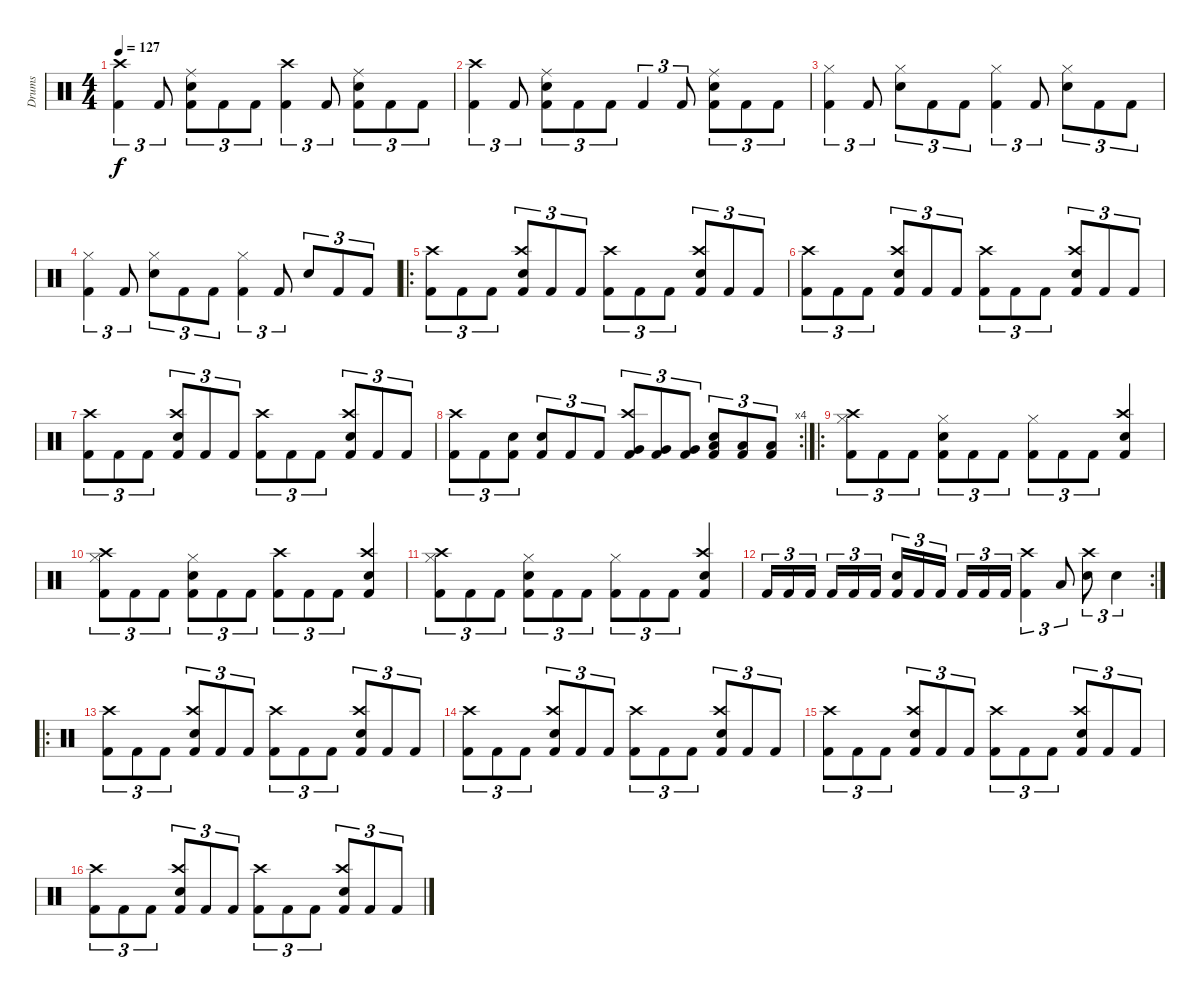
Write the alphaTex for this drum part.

\track ("Drums" "Drums") {instrument percussion}
\staff {score}
\articulation defaults
\ts (4 4)
\tempo 127
\clef neutral
\ks c
("Kick (hit) 2" "Crash high (hit)").4{tu (3 2) dy f} "Kick (hit) 2".8{tu (3 2)} ("Kick (hit) 2" "Electric Snare (hit)" "Ride (middle)").8{tu (3 2)} "Kick (hit) 2".8{tu (3 2)} "Kick (hit) 2".8{tu (3 2)} ("Kick (hit) 2" "Crash high (hit)").4{tu (3 2)} "Kick (hit) 2".8{tu (3 2)} ("Kick (hit) 2" "Electric Snare (hit)" "Ride (middle)").8{tu (3 2)} "Kick (hit) 2".8{tu (3 2)} "Kick (hit) 2".8{tu (3 2)} |
("Kick (hit) 2" "Crash high (hit)").4{tu (3 2)} "Kick (hit) 2".8{tu (3 2)} ("Kick (hit) 2" "Electric Snare (hit)" "Ride (middle)").8{tu (3 2)} "Kick (hit) 2".8{tu (3 2)} "Kick (hit) 2".8{tu (3 2)} "Kick (hit) 2".4{tu (3 2)} "Kick (hit) 2".8{tu (3 2)} ("Kick (hit) 2" "Electric Snare (hit)" "Ride (middle)").8{tu (3 2)} "Kick (hit) 2".8{tu (3 2)} "Kick (hit) 2".8{tu (3 2)} |
("Kick (hit) 2" "Hi-Hat (closed)").4{tu (3 2)} "Kick (hit) 2".8{tu (3 2)} ("Electric Snare (hit)" "Hi-Hat (closed)").8{tu (3 2)} "Kick (hit) 2".8{tu (3 2)} "Kick (hit) 2".8{tu (3 2)} ("Kick (hit) 2" "Hi-Hat (closed)").4{tu (3 2)} "Kick (hit) 2".8{tu (3 2)} ("Electric Snare (hit)" "Hi-Hat (closed)").8{tu (3 2)} "Kick (hit) 2".8{tu (3 2)} "Kick (hit) 2".8{tu (3 2)} |
("Kick (hit) 2" "Hi-Hat (closed)").4{tu (3 2)} "Kick (hit) 2".8{tu (3 2)} ("Electric Snare (hit)" "Hi-Hat (closed)").8{tu (3 2)} "Kick (hit) 2".8{tu (3 2)} "Kick (hit) 2".8{tu (3 2)} ("Kick (hit) 2" "Hi-Hat (closed)").4{tu (3 2)} "Kick (hit) 2".8{tu (3 2)} "Electric Snare (hit)".8{tu (3 2)} "Kick (hit) 2".8{tu (3 2)} "Kick (hit) 2".8{tu (3 2)} |
\ro
("Kick (hit) 2" "Crash high (hit)").8{tu (3 2)} "Kick (hit) 2".8{tu (3 2)} "Kick (hit) 2".8{tu (3 2)} ("Kick (hit) 2" "Electric Snare (hit)" "Crash high (hit)").8{tu (3 2)} "Kick (hit) 2".8{tu (3 2)} "Kick (hit) 2".8{tu (3 2)} ("Kick (hit) 2" "Crash high (hit)").8{tu (3 2)} "Kick (hit) 2".8{tu (3 2)} "Kick (hit) 2".8{tu (3 2)} ("Kick (hit) 2" "Electric Snare (hit)" "Crash high (hit)").8{tu (3 2)} "Kick (hit) 2".8{tu (3 2)} "Kick (hit) 2".8{tu (3 2)} |
("Kick (hit) 2" "Crash high (hit)").8{tu (3 2)} "Kick (hit) 2".8{tu (3 2)} "Kick (hit) 2".8{tu (3 2)} ("Kick (hit) 2" "Electric Snare (hit)" "Crash high (hit)").8{tu (3 2)} "Kick (hit) 2".8{tu (3 2)} "Kick (hit) 2".8{tu (3 2)} ("Kick (hit) 2" "Crash high (hit)").8{tu (3 2)} "Kick (hit) 2".8{tu (3 2)} "Kick (hit) 2".8{tu (3 2)} ("Kick (hit) 2" "Electric Snare (hit)" "Crash high (hit)").8{tu (3 2)} "Kick (hit) 2".8{tu (3 2)} "Kick (hit) 2".8{tu (3 2)} |
("Kick (hit) 2" "Crash high (hit)").8{tu (3 2)} "Kick (hit) 2".8{tu (3 2)} "Kick (hit) 2".8{tu (3 2)} ("Kick (hit) 2" "Electric Snare (hit)" "Crash high (hit)").8{tu (3 2)} "Kick (hit) 2".8{tu (3 2)} "Kick (hit) 2".8{tu (3 2)} ("Kick (hit) 2" "Crash high (hit)").8{tu (3 2)} "Kick (hit) 2".8{tu (3 2)} "Kick (hit) 2".8{tu (3 2)} ("Kick (hit) 2" "Electric Snare (hit)" "Crash high (hit)").8{tu (3 2)} "Kick (hit) 2".8{tu (3 2)} "Kick (hit) 2".8{tu (3 2)} |
\rc 4
("Kick (hit) 2" "Crash high (hit)").8{tu (3 2)} "Kick (hit) 2".8{tu (3 2)} ("Kick (hit) 2" "Electric Snare (hit)").8{tu (3 2)} ("Kick (hit) 2" "Electric Snare (hit)").8{tu (3 2)} "Kick (hit) 2".8{tu (3 2)} "Kick (hit) 2".8{tu (3 2)} ("Kick (hit) 2" "Crash high (hit)" "Very Low Tom (hit)").8{tu (3 2)} ("Kick (hit) 2" "Very Low Tom (hit)").8{tu (3 2)} ("Kick (hit) 2" "Very Low Tom (hit)").8{tu (3 2)} ("Kick (hit) 2" "Electric Snare (hit)" "Low Floor Tom (hit)").8{tu (3 2)} ("Kick (hit) 2" "Low Floor Tom (hit)").8{tu (3 2)} ("Kick (hit) 2" "Low Floor Tom (hit)").8{tu (3 2)} |
\ro
("Kick (hit) 2" "Hi-Hat (closed)" "Crash high (hit)").8{tu (3 2)} "Kick (hit) 2".8{tu (3 2)} "Kick (hit) 2".8{tu (3 2)} ("Kick (hit) 2" "Electric Snare (hit)" "Hi-Hat (closed)").8{tu (3 2)} "Kick (hit) 2".8{tu (3 2)} "Kick (hit) 2".8{tu (3 2)} ("Kick (hit) 2" "Hi-Hat (closed)").8{tu (3 2)} "Kick (hit) 2".8{tu (3 2)} "Kick (hit) 2".8{tu (3 2)} ("Kick (hit) 2" "Electric Snare (hit)" "Crash high (hit)").4 |
("Kick (hit) 2" "Hi-Hat (closed)" "Crash high (hit)").8{tu (3 2)} "Kick (hit) 2".8{tu (3 2)} "Kick (hit) 2".8{tu (3 2)} ("Kick (hit) 2" "Electric Snare (hit)" "Hi-Hat (closed)").8{tu (3 2)} "Kick (hit) 2".8{tu (3 2)} "Kick (hit) 2".8{tu (3 2)} ("Kick (hit) 2" "Crash high (hit)").8{tu (3 2)} "Kick (hit) 2".8{tu (3 2)} "Kick (hit) 2".8{tu (3 2)} ("Kick (hit) 2" "Electric Snare (hit)" "Crash high (hit)").4 |
("Kick (hit) 2" "Hi-Hat (closed)" "Crash high (hit)").8{tu (3 2)} "Kick (hit) 2".8{tu (3 2)} "Kick (hit) 2".8{tu (3 2)} ("Kick (hit) 2" "Electric Snare (hit)" "Hi-Hat (closed)").8{tu (3 2)} "Kick (hit) 2".8{tu (3 2)} "Kick (hit) 2".8{tu (3 2)} ("Kick (hit) 2" "Hi-Hat (closed)").8{tu (3 2)} "Kick (hit) 2".8{tu (3 2)} "Kick (hit) 2".8{tu (3 2)} ("Kick (hit) 2" "Electric Snare (hit)" "Crash high (hit)").4 |
\rc 2 "Kick (hit) 2".16{tu (3 2)} "Kick (hit) 2".16{tu (3 2)} "Kick (hit) 2".16{tu (3 2) beam splitsecondary} "Kick (hit) 2".16{tu (3 2)} "Kick (hit) 2".16{tu (3 2)} "Kick (hit) 2".16{tu (3 2)}
("Kick (hit) 2" "Electric Snare (hit)").16{tu (3 2)} "Kick (hit) 2".16{tu (3 2)} "Kick (hit) 2".16{tu (3 2) beam splitsecondary} "Kick (hit) 2".16{tu (3 2)} "Kick (hit) 2".16{tu (3 2)} "Kick (hit) 2".16{tu (3 2)} ("Kick (hit) 2" "Crash high (hit)").4{tu (3 2)} "Low Tom (hit)".8{tu (3 2)} ("Electric Snare (hit)" "Crash high (hit)").8{tu (3 2)} "Electric Snare (hit)".4{tu (3 2)} |
\ro
("Kick (hit) 2" "Crash high (hit)").8{tu (3 2)} "Kick (hit) 2".8{tu (3 2)} "Kick (hit) 2".8{tu (3 2)} ("Kick (hit) 2" "Electric Snare (hit)" "Crash high (hit)").8{tu (3 2)} "Kick (hit) 2".8{tu (3 2)} "Kick (hit) 2".8{tu (3 2)} ("Kick (hit) 2" "Crash high (hit)").8{tu (3 2)} "Kick (hit) 2".8{tu (3 2)} "Kick (hit) 2".8{tu (3 2)} ("Kick (hit) 2" "Electric Snare (hit)" "Crash high (hit)").8{tu (3 2)} "Kick (hit) 2".8{tu (3 2)} "Kick (hit) 2".8{tu (3 2)} |
("Kick (hit) 2" "Crash high (hit)").8{tu (3 2)} "Kick (hit) 2".8{tu (3 2)} "Kick (hit) 2".8{tu (3 2)} ("Kick (hit) 2" "Electric Snare (hit)" "Crash high (hit)").8{tu (3 2)} "Kick (hit) 2".8{tu (3 2)} "Kick (hit) 2".8{tu (3 2)} ("Kick (hit) 2" "Crash high (hit)").8{tu (3 2)} "Kick (hit) 2".8{tu (3 2)} "Kick (hit) 2".8{tu (3 2)} ("Kick (hit) 2" "Electric Snare (hit)" "Crash high (hit)").8{tu (3 2)} "Kick (hit) 2".8{tu (3 2)} "Kick (hit) 2".8{tu (3 2)} |
("Kick (hit) 2" "Crash high (hit)").8{tu (3 2)} "Kick (hit) 2".8{tu (3 2)} "Kick (hit) 2".8{tu (3 2)} ("Kick (hit) 2" "Electric Snare (hit)" "Crash high (hit)").8{tu (3 2)} "Kick (hit) 2".8{tu (3 2)} "Kick (hit) 2".8{tu (3 2)} ("Kick (hit) 2" "Crash high (hit)").8{tu (3 2)} "Kick (hit) 2".8{tu (3 2)} "Kick (hit) 2".8{tu (3 2)} ("Kick (hit) 2" "Electric Snare (hit)" "Crash high (hit)").8{tu (3 2)} "Kick (hit) 2".8{tu (3 2)} "Kick (hit) 2".8{tu (3 2)} |
("Kick (hit) 2" "Crash high (hit)").8{tu (3 2)} "Kick (hit) 2".8{tu (3 2)} "Kick (hit) 2".8{tu (3 2)} ("Kick (hit) 2" "Electric Snare (hit)" "Crash high (hit)").8{tu (3 2)} "Kick (hit) 2".8{tu (3 2)} "Kick (hit) 2".8{tu (3 2)} ("Kick (hit) 2" "Crash high (hit)").8{tu (3 2)} "Kick (hit) 2".8{tu (3 2)} "Kick (hit) 2".8{tu (3 2)} ("Kick (hit) 2" "Electric Snare (hit)" "Crash high (hit)").8{tu (3 2)} "Kick (hit) 2".8{tu (3 2)} "Kick (hit) 2".8{tu (3 2)}
